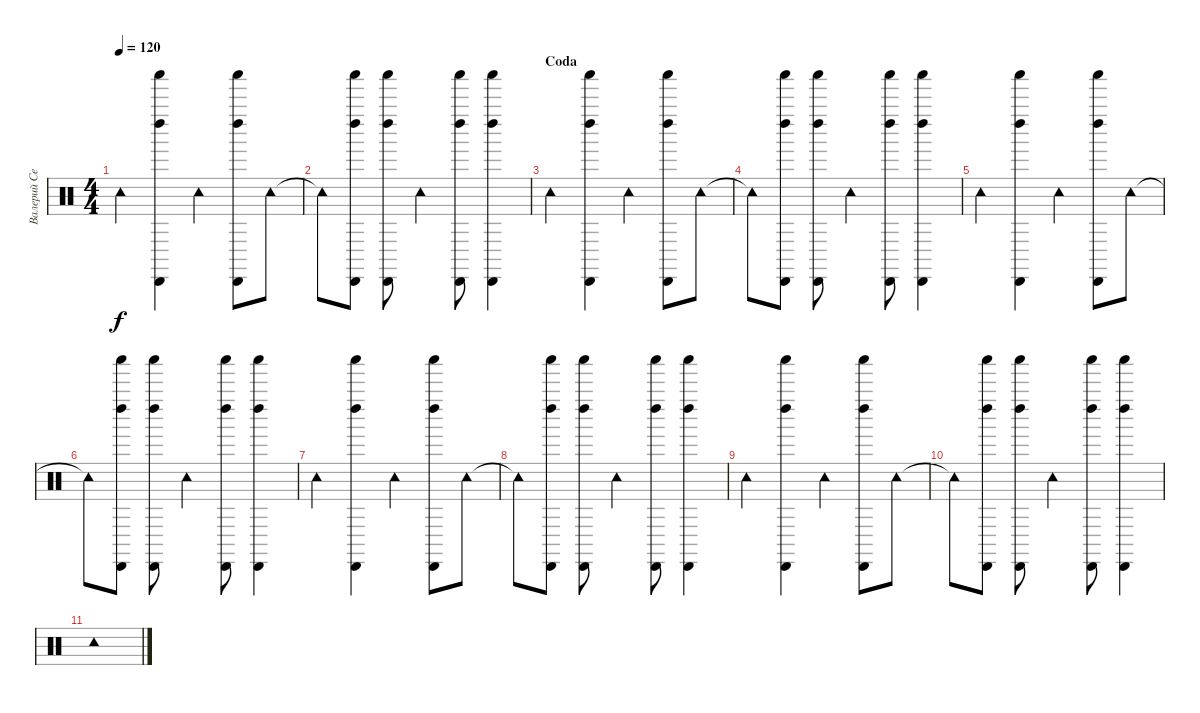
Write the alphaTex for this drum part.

\track ("Валерий Северин" "Валерий Се") {instrument percussion}
\staff {score}
\articulation defaults
\ts (4 4)
\tempo 120
\clef neutral
\ks c "Tambourine (hit)".4{dy f}
("Left Maraca (hit)" "Cabasa (hit)" "Shaker (hit)").4 "Tambourine (hit)".4 ("Left Maraca (hit)" "Cabasa (hit)" "Shaker (hit)").8 "Tambourine (hit)".8 |
"Tambourine (hit)"{t}.8 ("Left Maraca (hit)" "Cabasa (hit)" "Shaker (hit)").8 ("Left Maraca (hit)" "Cabasa (hit)" "Shaker (hit)").8 "Tambourine (hit)".4 ("Left Maraca (hit)" "Cabasa (hit)" "Shaker (hit)").8 ("Left Maraca (hit)" "Cabasa (hit)" "Shaker (hit)").4 |
\section ("" "Coda")
"Tambourine (hit)".4 ("Left Maraca (hit)" "Cabasa (hit)" "Shaker (hit)").4 "Tambourine (hit)".4 ("Left Maraca (hit)" "Cabasa (hit)" "Shaker (hit)").8 "Tambourine (hit)".8 |
"Tambourine (hit)"{t}.8 ("Left Maraca (hit)" "Cabasa (hit)" "Shaker (hit)").8 ("Left Maraca (hit)" "Cabasa (hit)" "Shaker (hit)").8 "Tambourine (hit)".4 ("Left Maraca (hit)" "Cabasa (hit)" "Shaker (hit)").8 ("Left Maraca (hit)" "Cabasa (hit)" "Shaker (hit)").4 |
"Tambourine (hit)".4 ("Left Maraca (hit)" "Cabasa (hit)" "Shaker (hit)").4 "Tambourine (hit)".4 ("Left Maraca (hit)" "Cabasa (hit)" "Shaker (hit)").8 "Tambourine (hit)".8 |
"Tambourine (hit)"{t}.8 ("Left Maraca (hit)" "Cabasa (hit)" "Shaker (hit)").8 ("Left Maraca (hit)" "Cabasa (hit)" "Shaker (hit)").8 "Tambourine (hit)".4 ("Left Maraca (hit)" "Cabasa (hit)" "Shaker (hit)").8 ("Left Maraca (hit)" "Cabasa (hit)" "Shaker (hit)").4 |
"Tambourine (hit)".4 ("Left Maraca (hit)" "Cabasa (hit)" "Shaker (hit)").4 "Tambourine (hit)".4 ("Left Maraca (hit)" "Cabasa (hit)" "Shaker (hit)").8 "Tambourine (hit)".8 |
"Tambourine (hit)"{t}.8 ("Left Maraca (hit)" "Cabasa (hit)" "Shaker (hit)").8 ("Left Maraca (hit)" "Cabasa (hit)" "Shaker (hit)").8 "Tambourine (hit)".4 ("Left Maraca (hit)" "Cabasa (hit)" "Shaker (hit)").8 ("Left Maraca (hit)" "Cabasa (hit)" "Shaker (hit)").4 |
"Tambourine (hit)".4 ("Left Maraca (hit)" "Cabasa (hit)" "Shaker (hit)").4 "Tambourine (hit)".4 ("Left Maraca (hit)" "Cabasa (hit)" "Shaker (hit)").8 "Tambourine (hit)".8 |
"Tambourine (hit)"{t}.8 ("Left Maraca (hit)" "Cabasa (hit)" "Shaker (hit)").8 ("Left Maraca (hit)" "Cabasa (hit)" "Shaker (hit)").8 "Tambourine (hit)".4 ("Left Maraca (hit)" "Cabasa (hit)" "Shaker (hit)").8 ("Left Maraca (hit)" "Cabasa (hit)" "Shaker (hit)").4 |
"Tambourine (hit)".1
